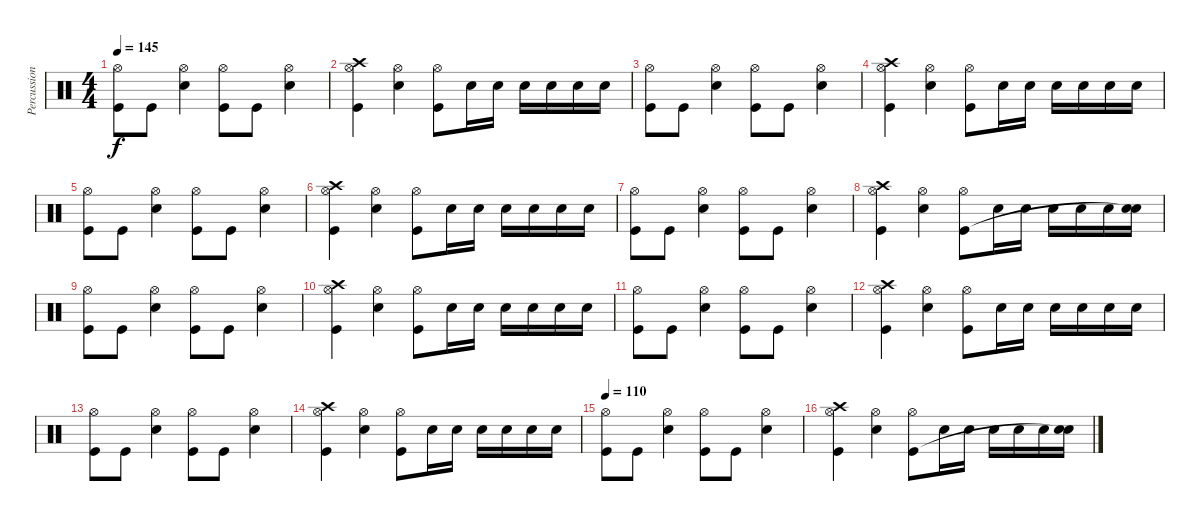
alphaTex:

\track ("Percussion" "Percussion") {instrument percussion}
\staff {score}
\articulation defaults
\ts (4 4)
\tempo 145
\clef neutral
\ks c
("Hi-Hat (open)" "Kick (hit)").8{dy f} "Kick (hit)".8 ("Hi-Hat (open)" "Snare (hit) 2").4 ("Hi-Hat (open)" "Kick (hit)").8 "Kick (hit)".8 ("Hi-Hat (open)" "Snare (hit) 2").4 |
("Kick (hit)" "Hi-Hat (open)" "Crash high (hit)").4 ("Hi-Hat (open)" "Snare (hit) 2").4 ("Hi-Hat (open)" "Kick (hit)").8 "Snare (hit) 2".16 "Snare (hit) 2".16 "Snare (hit) 2".16 "Snare (hit) 2".16 "Snare (hit) 2".16 "Snare (hit) 2".16 |
("Hi-Hat (open)" "Kick (hit)").8 "Kick (hit)".8 ("Hi-Hat (open)" "Snare (hit) 2").4 ("Hi-Hat (open)" "Kick (hit)").8 "Kick (hit)".8 ("Hi-Hat (open)" "Snare (hit) 2").4 |
("Kick (hit)" "Hi-Hat (open)" "Crash high (hit)").4 ("Hi-Hat (open)" "Snare (hit) 2").4 ("Hi-Hat (open)" "Kick (hit)").8 "Snare (hit) 2".16 "Snare (hit) 2".16 "Snare (hit) 2".16 "Snare (hit) 2".16 "Snare (hit) 2".16 "Snare (hit) 2".16 |
("Hi-Hat (open)" "Kick (hit)").8 "Kick (hit)".8 ("Hi-Hat (open)" "Snare (hit) 2").4 ("Hi-Hat (open)" "Kick (hit)").8 "Kick (hit)".8 ("Hi-Hat (open)" "Snare (hit) 2").4 |
("Kick (hit)" "Hi-Hat (open)" "Crash high (hit)").4 ("Hi-Hat (open)" "Snare (hit) 2").4 ("Hi-Hat (open)" "Kick (hit)").8 "Snare (hit) 2".16 "Snare (hit) 2".16 "Snare (hit) 2".16 "Snare (hit) 2".16 "Snare (hit) 2".16 "Snare (hit) 2".16 |
("Hi-Hat (open)" "Kick (hit)").8 "Kick (hit)".8 ("Hi-Hat (open)" "Snare (hit) 2").4 ("Hi-Hat (open)" "Kick (hit)").8 "Kick (hit)".8 ("Hi-Hat (open)" "Snare (hit) 2").4 |
("Kick (hit)" "Hi-Hat (open)" "Crash high (hit)").4 ("Hi-Hat (open)" "Snare (hit) 2").4 ("Hi-Hat (open)" "Kick (hit)").8 "Snare (hit) 2".16 "Snare (hit) 2".16 "Snare (hit) 2".16 "Snare (hit) 2".16 "Snare (hit) 2".16 ("Snare (hit) 2" "Snare (hit)"{t}).16 |
("Hi-Hat (open)" "Kick (hit)").8 "Kick (hit)".8 ("Hi-Hat (open)" "Snare (hit) 2").4 ("Hi-Hat (open)" "Kick (hit)").8 "Kick (hit)".8 ("Hi-Hat (open)" "Snare (hit) 2").4 |
("Kick (hit)" "Hi-Hat (open)" "Crash high (hit)").4 ("Hi-Hat (open)" "Snare (hit) 2").4 ("Hi-Hat (open)" "Kick (hit)").8 "Snare (hit) 2".16 "Snare (hit) 2".16 "Snare (hit) 2".16 "Snare (hit) 2".16 "Snare (hit) 2".16 "Snare (hit) 2".16 |
("Hi-Hat (open)" "Kick (hit)").8 "Kick (hit)".8 ("Hi-Hat (open)" "Snare (hit) 2").4 ("Hi-Hat (open)" "Kick (hit)").8 "Kick (hit)".8 ("Hi-Hat (open)" "Snare (hit) 2").4 |
("Kick (hit)" "Hi-Hat (open)" "Crash high (hit)").4 ("Hi-Hat (open)" "Snare (hit) 2").4 ("Hi-Hat (open)" "Kick (hit)").8 "Snare (hit) 2".16 "Snare (hit) 2".16 "Snare (hit) 2".16 "Snare (hit) 2".16 "Snare (hit) 2".16 "Snare (hit) 2".16 |
("Hi-Hat (open)" "Kick (hit)").8 "Kick (hit)".8 ("Hi-Hat (open)" "Snare (hit) 2").4 ("Hi-Hat (open)" "Kick (hit)").8 "Kick (hit)".8 ("Hi-Hat (open)" "Snare (hit) 2").4 |
("Kick (hit)" "Hi-Hat (open)" "Crash high (hit)").4 ("Hi-Hat (open)" "Snare (hit) 2").4 ("Hi-Hat (open)" "Kick (hit)").8 "Snare (hit) 2".16 "Snare (hit) 2".16 "Snare (hit) 2".16 "Snare (hit) 2".16 "Snare (hit) 2".16 "Snare (hit) 2".16 |
\tempo 110
("Hi-Hat (open)" "Kick (hit)").8 "Kick (hit)".8 ("Hi-Hat (open)" "Snare (hit) 2").4 ("Hi-Hat (open)" "Kick (hit)").8 "Kick (hit)".8 ("Hi-Hat (open)" "Snare (hit) 2").4 |
("Kick (hit)" "Hi-Hat (open)" "Crash high (hit)").4 ("Hi-Hat (open)" "Snare (hit) 2").4 ("Hi-Hat (open)" "Kick (hit)").8 "Snare (hit) 2".16 "Snare (hit) 2".16 "Snare (hit) 2".16 "Snare (hit) 2".16 "Snare (hit) 2".16 ("Snare (hit) 2" "Snare (hit)"{t}).16
